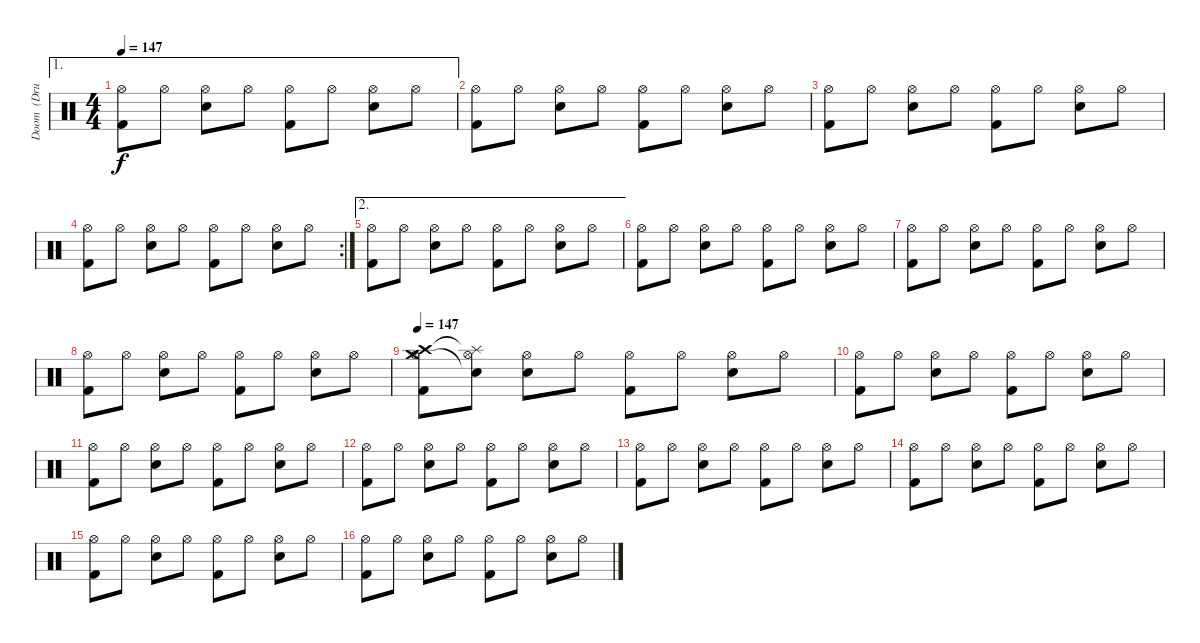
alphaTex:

\track ("Doom  (Drums)" "Doom  (Dru") {instrument percussion}
\staff {score}
\articulation defaults
\ae 1
\ts (4 4)
\tempo 147
\clef neutral
\ks c
("Hi-Hat (open)" "Kick (hit) 2").8{dy f} "Hi-Hat (open)".8 ("Hi-Hat (open)" "Electric Snare (hit)").8 "Hi-Hat (open)".8 ("Hi-Hat (open)" "Kick (hit) 2").8 "Hi-Hat (open)".8 ("Hi-Hat (open)" "Electric Snare (hit)").8 "Hi-Hat (open)".8 |
("Hi-Hat (open)" "Kick (hit) 2").8 "Hi-Hat (open)".8 ("Hi-Hat (open)" "Electric Snare (hit)").8 "Hi-Hat (open)".8 ("Hi-Hat (open)" "Kick (hit) 2").8 "Hi-Hat (open)".8 ("Hi-Hat (open)" "Electric Snare (hit)").8 "Hi-Hat (open)".8 |
("Hi-Hat (open)" "Kick (hit) 2").8 "Hi-Hat (open)".8 ("Hi-Hat (open)" "Electric Snare (hit)").8 "Hi-Hat (open)".8 ("Hi-Hat (open)" "Kick (hit) 2").8 "Hi-Hat (open)".8 ("Hi-Hat (open)" "Electric Snare (hit)").8 "Hi-Hat (open)".8 |
\rc 2
("Hi-Hat (open)" "Kick (hit) 2").8 "Hi-Hat (open)".8 ("Hi-Hat (open)" "Electric Snare (hit)").8 "Hi-Hat (open)".8 ("Hi-Hat (open)" "Kick (hit) 2").8 "Hi-Hat (open)".8 ("Hi-Hat (open)" "Electric Snare (hit)").8 "Hi-Hat (open)".8 |
\ae 2
("Hi-Hat (open)" "Kick (hit) 2").8 "Hi-Hat (open)".8 ("Hi-Hat (open)" "Electric Snare (hit)").8 "Hi-Hat (open)".8 ("Hi-Hat (open)" "Kick (hit) 2").8 "Hi-Hat (open)".8 ("Hi-Hat (open)" "Electric Snare (hit)").8 "Hi-Hat (open)".8 |
("Hi-Hat (open)" "Kick (hit) 2").8 "Hi-Hat (open)".8 ("Hi-Hat (open)" "Electric Snare (hit)").8 "Hi-Hat (open)".8 ("Hi-Hat (open)" "Kick (hit) 2").8 "Hi-Hat (open)".8 ("Hi-Hat (open)" "Electric Snare (hit)").8 "Hi-Hat (open)".8 |
("Hi-Hat (open)" "Kick (hit) 2").8 "Hi-Hat (open)".8 ("Hi-Hat (open)" "Electric Snare (hit)").8 "Hi-Hat (open)".8 ("Hi-Hat (open)" "Kick (hit) 2").8 "Hi-Hat (open)".8 ("Hi-Hat (open)" "Electric Snare (hit)").8 "Hi-Hat (open)".8 |
("Hi-Hat (open)" "Kick (hit) 2").8 "Hi-Hat (open)".8 ("Hi-Hat (open)" "Electric Snare (hit)").8 "Hi-Hat (open)".8 ("Hi-Hat (open)" "Kick (hit) 2").8 "Hi-Hat (open)".8 ("Hi-Hat (open)" "Electric Snare (hit)").8 "Hi-Hat (open)".8 |
\tempo 147
("Crash high (hit)" "Hi-Hat (open)" "Crash medium (hit)" "Kick (hit) 2").8 ("Splash (hit)"{t} "Hi-Hat (open)" "Snare (hit)"{t}).8 ("Hi-Hat (open)" "Electric Snare (hit)").8 "Hi-Hat (open)".8 ("Hi-Hat (open)" "Kick (hit) 2").8 "Hi-Hat (open)".8 ("Hi-Hat (open)" "Electric Snare (hit)").8 "Hi-Hat (open)".8 |
("Hi-Hat (open)" "Kick (hit) 2").8 "Hi-Hat (open)".8 ("Hi-Hat (open)" "Electric Snare (hit)").8 "Hi-Hat (open)".8 ("Hi-Hat (open)" "Kick (hit) 2").8 "Hi-Hat (open)".8 ("Hi-Hat (open)" "Electric Snare (hit)").8 "Hi-Hat (open)".8 |
("Hi-Hat (open)" "Kick (hit) 2").8 "Hi-Hat (open)".8 ("Hi-Hat (open)" "Electric Snare (hit)").8 "Hi-Hat (open)".8 ("Hi-Hat (open)" "Kick (hit) 2").8 "Hi-Hat (open)".8 ("Hi-Hat (open)" "Electric Snare (hit)").8 "Hi-Hat (open)".8 |
("Hi-Hat (open)" "Kick (hit) 2").8 "Hi-Hat (open)".8 ("Hi-Hat (open)" "Electric Snare (hit)").8 "Hi-Hat (open)".8 ("Hi-Hat (open)" "Kick (hit) 2").8 "Hi-Hat (open)".8 ("Hi-Hat (open)" "Electric Snare (hit)").8 "Hi-Hat (open)".8 |
("Hi-Hat (open)" "Kick (hit) 2").8 "Hi-Hat (open)".8 ("Hi-Hat (open)" "Electric Snare (hit)").8 "Hi-Hat (open)".8 ("Hi-Hat (open)" "Kick (hit) 2").8 "Hi-Hat (open)".8 ("Hi-Hat (open)" "Electric Snare (hit)").8 "Hi-Hat (open)".8 |
("Hi-Hat (open)" "Kick (hit) 2").8 "Hi-Hat (open)".8 ("Hi-Hat (open)" "Electric Snare (hit)").8 "Hi-Hat (open)".8 ("Hi-Hat (open)" "Kick (hit) 2").8 "Hi-Hat (open)".8 ("Hi-Hat (open)" "Electric Snare (hit)").8 "Hi-Hat (open)".8 |
("Hi-Hat (open)" "Kick (hit) 2").8 "Hi-Hat (open)".8 ("Hi-Hat (open)" "Electric Snare (hit)").8 "Hi-Hat (open)".8 ("Hi-Hat (open)" "Kick (hit) 2").8 "Hi-Hat (open)".8 ("Hi-Hat (open)" "Electric Snare (hit)").8 "Hi-Hat (open)".8 |
("Hi-Hat (open)" "Kick (hit) 2").8 "Hi-Hat (open)".8 ("Hi-Hat (open)" "Electric Snare (hit)").8 "Hi-Hat (open)".8 ("Hi-Hat (open)" "Kick (hit) 2").8 "Hi-Hat (open)".8 ("Hi-Hat (open)" "Electric Snare (hit)").8 "Hi-Hat (open)".8
